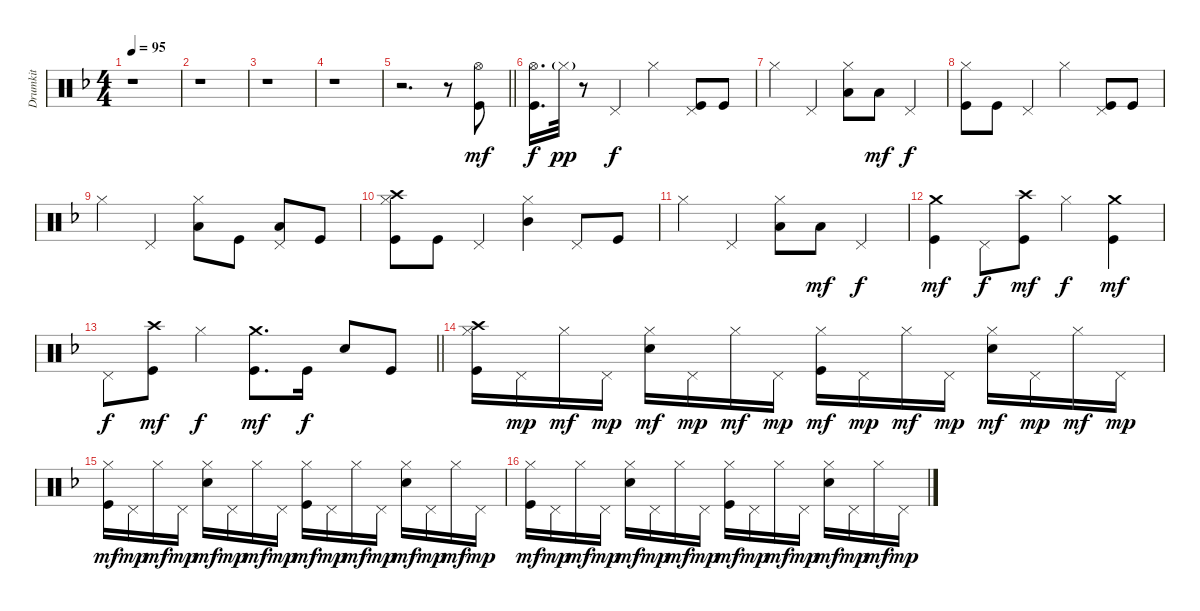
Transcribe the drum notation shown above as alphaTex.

\track ("Drumkit" "Drumkit") {instrument percussion}
\staff {score}
\articulation defaults
\ts (4 4)
\tempo 95
\clef neutral
\ks f
r.1{dy mf} |
r.1 |
r.1 |
r.1 |
\barLineRight lightlight
r.2{d} r.8 ("Hi-Hat (open)" "Kick (hit)").8 |
("Hi-Hat (open)" "Kick (hit)").16{d dy f} "Hi-Hat (closed)"{g}.32{dy pp} r.8 "Pedal Hi-Hat (hit)".4{dy f} "Hi-Hat (closed)".4 ("Pedal Hi-Hat (hit)" "Kick (hit)").8 "Kick (hit)".8 |
"Hi-Hat (closed)".4 "Pedal Hi-Hat (hit)".4 ("Hi-Hat (closed)" "Low Tom (hit)").8 "Low Floor Tom (hit)".8{dy mf} "Pedal Hi-Hat (hit)".4{dy f} |
("Hi-Hat (closed)" "Kick (hit)").8 "Kick (hit)".8 "Pedal Hi-Hat (hit)".4 "Hi-Hat (closed)".4 ("Pedal Hi-Hat (hit)" "Kick (hit)").8 "Kick (hit)".8 |
"Hi-Hat (closed)".4 "Pedal Hi-Hat (hit)".4 ("Hi-Hat (closed)" "Low Tom (hit)").8 "Kick (hit)".8 ("Pedal Hi-Hat (hit)" "Low Floor Tom (hit)").8 "Kick (hit)".8 |
("Hi-Hat (closed)" "Crash high (hit)" "Kick (hit)").8 "Kick (hit)".8 "Pedal Hi-Hat (hit)".4 ("Hi-Hat (closed)" "Mid Tom (hit)").4 "Pedal Hi-Hat (hit)".8 "Kick (hit)".8 |
"Hi-Hat (closed)".4 "Pedal Hi-Hat (hit)".4 ("Hi-Hat (closed)" "Low Tom (hit)").8 "Low Floor Tom (hit)".8{dy mf} "Pedal Hi-Hat (hit)".4{dy f} |
("Crash medium (hit)" "Kick (hit)").4{dy mf} "Pedal Hi-Hat (hit)".8{dy f} ("Crash high (hit)" "Kick (hit)").8{dy mf} "Hi-Hat (closed)".4{dy f} ("Crash medium (hit)" "Kick (hit)").4{dy mf} |
\barLineRight lightlight "Pedal Hi-Hat (hit)".8{dy f}
("Crash high (hit)" "Kick (hit)").8{dy mf} "Hi-Hat (closed)".4{dy f} ("Crash medium (hit)" "Kick (hit)").8{d dy mf} "Kick (hit)".16{dy f} "Snare (hit) 2".8 "Kick (hit)".8 |
("Crash high (hit)" "Hi-Hat (closed)" "Kick (hit)").16 "Pedal Hi-Hat (hit)".16{dy mp} "Hi-Hat (closed)".16{dy mf} "Pedal Hi-Hat (hit)".16{dy mp} ("Hi-Hat (closed)" "Snare (hit) 2").16{dy mf} "Pedal Hi-Hat (hit)".16{dy mp} "Hi-Hat (closed)".16{dy mf} "Pedal Hi-Hat (hit)".16{dy mp} ("Hi-Hat (closed)" "Kick (hit)").16{dy mf} "Pedal Hi-Hat (hit)".16{dy mp} "Hi-Hat (closed)".16{dy mf} "Pedal Hi-Hat (hit)".16{dy mp} ("Hi-Hat (closed)" "Snare (hit) 2").16{dy mf} "Pedal Hi-Hat (hit)".16{dy mp} "Hi-Hat (closed)".16{dy mf} "Pedal Hi-Hat (hit)".16{dy mp} |
("Hi-Hat (closed)" "Kick (hit)").16{dy mf} "Pedal Hi-Hat (hit)".16{dy mp} "Hi-Hat (closed)".16{dy mf} "Pedal Hi-Hat (hit)".16{dy mp} ("Hi-Hat (closed)" "Snare (hit) 2").16{dy mf} "Pedal Hi-Hat (hit)".16{dy mp} "Hi-Hat (closed)".16{dy mf} "Pedal Hi-Hat (hit)".16{dy mp} ("Hi-Hat (closed)" "Kick (hit)").16{dy mf} "Pedal Hi-Hat (hit)".16{dy mp} "Hi-Hat (closed)".16{dy mf} "Pedal Hi-Hat (hit)".16{dy mp} ("Hi-Hat (closed)" "Snare (hit) 2").16{dy mf} "Pedal Hi-Hat (hit)".16{dy mp} "Hi-Hat (closed)".16{dy mf} "Pedal Hi-Hat (hit)".16{dy mp} |
("Hi-Hat (closed)" "Kick (hit)").16{dy mf} "Pedal Hi-Hat (hit)".16{dy mp} "Hi-Hat (closed)".16{dy mf} "Pedal Hi-Hat (hit)".16{dy mp} ("Hi-Hat (closed)" "Snare (hit) 2").16{dy mf} "Pedal Hi-Hat (hit)".16{dy mp} "Hi-Hat (closed)".16{dy mf} "Pedal Hi-Hat (hit)".16{dy mp} ("Hi-Hat (closed)" "Kick (hit)").16{dy mf} "Pedal Hi-Hat (hit)".16{dy mp} "Hi-Hat (closed)".16{dy mf} "Pedal Hi-Hat (hit)".16{dy mp} ("Hi-Hat (closed)" "Snare (hit) 2").16{dy mf} "Pedal Hi-Hat (hit)".16{dy mp} "Hi-Hat (closed)".16{dy mf} "Pedal Hi-Hat (hit)".16{dy mp}
